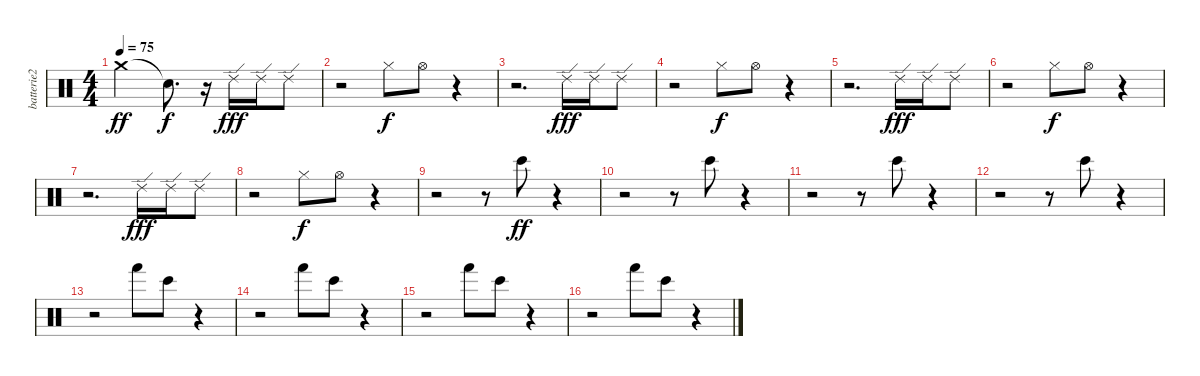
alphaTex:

\track ("batterie2" "batterie2") {instrument percussion}
\staff {score}
\articulation defaults
\ts (4 4)
\tempo 75
\clef neutral
\ks c "Crash medium (hit)".2{dy ff} "Snare (hit)"{t}.8{d dy f}
r.16 "Ride (edge) 2".16{dy fff} "Ride (edge) 2".16 "Ride (edge) 2".8 |
r.2 "Hi-Hat (closed)".8{dy f} "Hi-Hat (open)".8 r.4 |
r.2{d} "Ride (edge) 2".16{dy fff} "Ride (edge) 2".16 "Ride (edge) 2".8 |
r.2 "Hi-Hat (closed)".8{dy f} "Hi-Hat (open)".8 r.4 |
r.2{d} "Ride (edge) 2".16{dy fff} "Ride (edge) 2".16 "Ride (edge) 2".8 |
r.2 "Hi-Hat (closed)".8{dy f} "Hi-Hat (open)".8 r.4 |
r.2{d} "Ride (edge) 2".16{dy fff} "Ride (edge) 2".16 "Ride (edge) 2".8 |
r.2 "Hi-Hat (closed)".8{dy f} "Hi-Hat (open)".8 r.4 |
r.2 r.8 "Bongo High (hit)".8{dy ff} r.4 |
r.2 r.8 "Bongo High (hit)".8 r.4 |
r.2 r.8 "Bongo High (hit)".8 r.4 |
r.2 r.8 "Bongo High (hit)".8 r.4 |
r.2 "Hand (hit)".8 "Bongo High (hit)".8 r.4 |
r.2 "Hand (hit)".8 "Bongo High (hit)".8 r.4 |
r.2 "Hand (hit)".8 "Bongo High (hit)".8 r.4 |
r.2 "Hand (hit)".8 "Bongo High (hit)".8 r.4
